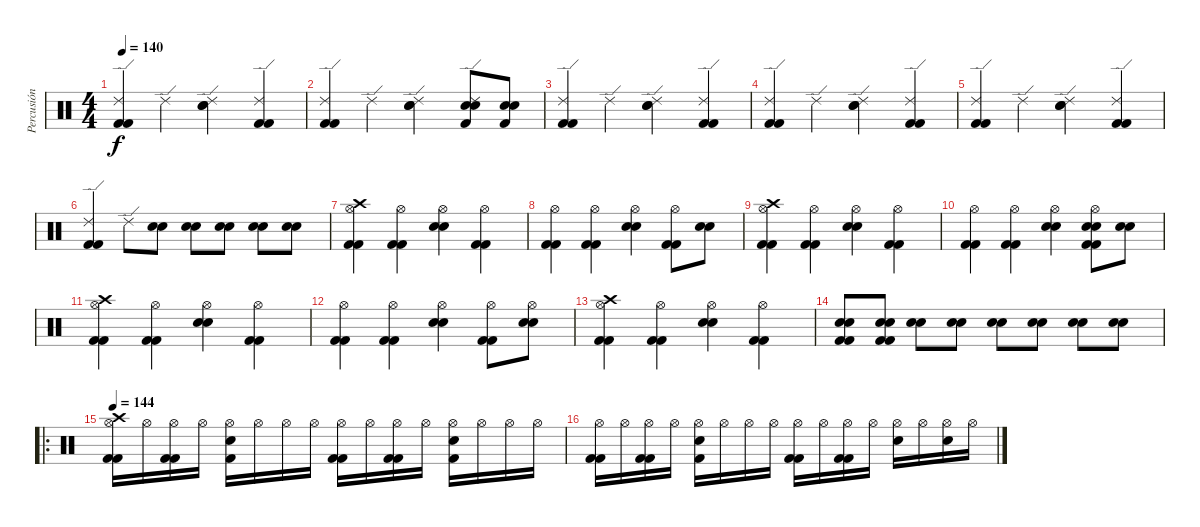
\track ("Percusión" "Percusión") {instrument percussion}
\staff {score}
\articulation defaults
\ts (4 4)
\tempo 140
\clef neutral
\ks c
("Kick (hit) 2" "Kick (hit) 2" "Ride (edge) 2").4{dy f} "Ride (edge) 2".4 ("Electric Snare (hit)" "Electric Snare (hit)" "Ride (edge) 2").4 ("Kick (hit) 2" "Kick (hit) 2" "Ride (edge) 2").4 |
("Kick (hit) 2" "Kick (hit) 2" "Ride (edge) 2").4 "Ride (edge) 2".4 ("Electric Snare (hit)" "Electric Snare (hit)" "Ride (edge) 2").4 ("Electric Snare (hit)" "Electric Snare (hit)" "Kick (hit) 2" "Ride (edge) 2").8 ("Electric Snare (hit)" "Electric Snare (hit)" "Kick (hit) 2").8 |
("Kick (hit) 2" "Kick (hit) 2" "Ride (edge) 2").4 "Ride (edge) 2".4 ("Electric Snare (hit)" "Electric Snare (hit)" "Ride (edge) 2").4 ("Kick (hit) 2" "Kick (hit) 2" "Ride (edge) 2").4 |
("Kick (hit) 2" "Kick (hit) 2" "Ride (edge) 2").4 "Ride (edge) 2".4 ("Electric Snare (hit)" "Electric Snare (hit)" "Ride (edge) 2").4 ("Kick (hit) 2" "Kick (hit) 2" "Ride (edge) 2").4 |
("Kick (hit) 2" "Kick (hit) 2" "Ride (edge) 2").4 "Ride (edge) 2".4 ("Electric Snare (hit)" "Electric Snare (hit)" "Ride (edge) 2").4 ("Kick (hit) 2" "Kick (hit) 2" "Ride (edge) 2").4 |
("Kick (hit) 2" "Kick (hit) 2" "Ride (edge) 2").4 "Ride (edge) 2".8 ("Electric Snare (hit)" "Electric Snare (hit)").8 ("Electric Snare (hit)" "Electric Snare (hit)").8 ("Electric Snare (hit)" "Electric Snare (hit)").8 ("Electric Snare (hit)" "Electric Snare (hit)").8 ("Electric Snare (hit)" "Electric Snare (hit)").8 |
("Crash high (hit)" "Kick (hit) 2" "Kick (hit) 2" "Hi-Hat (open)").4 ("Kick (hit) 2" "Kick (hit) 2" "Hi-Hat (open)").4 ("Electric Snare (hit)" "Electric Snare (hit)" "Hi-Hat (open)").4 ("Kick (hit) 2" "Kick (hit) 2" "Hi-Hat (open)").4 |
("Kick (hit) 2" "Kick (hit) 2" "Hi-Hat (open)").4 ("Kick (hit) 2" "Kick (hit) 2" "Hi-Hat (open)").4 ("Electric Snare (hit)" "Electric Snare (hit)" "Hi-Hat (open)").4 ("Kick (hit) 2" "Kick (hit) 2" "Hi-Hat (open)").8 ("Electric Snare (hit)" "Electric Snare (hit)").8 |
("Crash high (hit)" "Kick (hit) 2" "Kick (hit) 2" "Hi-Hat (open)").4 ("Kick (hit) 2" "Kick (hit) 2" "Hi-Hat (open)").4 ("Electric Snare (hit)" "Electric Snare (hit)" "Hi-Hat (open)").4 ("Kick (hit) 2" "Kick (hit) 2" "Hi-Hat (open)").4 |
("Kick (hit) 2" "Kick (hit) 2" "Hi-Hat (open)").4 ("Kick (hit) 2" "Kick (hit) 2" "Hi-Hat (open)").4 ("Electric Snare (hit)" "Electric Snare (hit)" "Hi-Hat (open)").4 ("Electric Snare (hit)" "Electric Snare (hit)" "Kick (hit) 2" "Kick (hit) 2" "Hi-Hat (open)").8 ("Electric Snare (hit)" "Electric Snare (hit)").8 |
("Crash high (hit)" "Kick (hit) 2" "Kick (hit) 2" "Hi-Hat (open)").4 ("Kick (hit) 2" "Kick (hit) 2" "Hi-Hat (open)").4 ("Electric Snare (hit)" "Electric Snare (hit)" "Hi-Hat (open)").4 ("Kick (hit) 2" "Kick (hit) 2" "Hi-Hat (open)").4 |
("Kick (hit) 2" "Kick (hit) 2" "Hi-Hat (open)").4 ("Kick (hit) 2" "Kick (hit) 2" "Hi-Hat (open)").4 ("Electric Snare (hit)" "Electric Snare (hit)" "Hi-Hat (open)").4 ("Kick (hit) 2" "Kick (hit) 2" "Hi-Hat (open)").8 ("Hi-Hat (open)" "Electric Snare (hit)" "Electric Snare (hit)").8 |
("Crash high (hit)" "Kick (hit) 2" "Kick (hit) 2" "Hi-Hat (open)").4 ("Kick (hit) 2" "Kick (hit) 2" "Hi-Hat (open)").4 ("Electric Snare (hit)" "Electric Snare (hit)" "Hi-Hat (open)").4 ("Kick (hit) 2" "Kick (hit) 2" "Hi-Hat (open)").4 |
("Electric Snare (hit)" "Electric Snare (hit)" "Kick (hit) 2" "Kick (hit) 2").8 ("Electric Snare (hit)" "Electric Snare (hit)" "Kick (hit) 2" "Kick (hit) 2").8 ("Electric Snare (hit)" "Electric Snare (hit)").8 ("Electric Snare (hit)" "Electric Snare (hit)").8 ("Electric Snare (hit)" "Electric Snare (hit)").8 ("Electric Snare (hit)" "Electric Snare (hit)").8 ("Electric Snare (hit)" "Electric Snare (hit)").8 ("Electric Snare (hit)" "Electric Snare (hit)").8 |
\ro
\tempo 144
("Hi-Hat (open)" "Kick (hit) 2" "Kick (hit) 2" "Crash high (hit)").16 "Hi-Hat (open)".16 ("Hi-Hat (open)" "Kick (hit) 2" "Kick (hit) 2").16 "Hi-Hat (open)".16 ("Hi-Hat (open)" "Kick (hit) 2" "Electric Snare (hit)").16 "Hi-Hat (open)".16 "Hi-Hat (open)".16 "Hi-Hat (open)".16 ("Hi-Hat (open)" "Kick (hit) 2" "Kick (hit) 2").16 "Hi-Hat (open)".16 ("Hi-Hat (open)" "Kick (hit) 2" "Kick (hit) 2").16 "Hi-Hat (open)".16 ("Hi-Hat (open)" "Kick (hit) 2" "Electric Snare (hit)").16 "Hi-Hat (open)".16 "Hi-Hat (open)".16 "Hi-Hat (open)".16 |
("Hi-Hat (open)" "Kick (hit) 2" "Kick (hit) 2").16 "Hi-Hat (open)".16 ("Hi-Hat (open)" "Kick (hit) 2" "Kick (hit) 2").16 "Hi-Hat (open)".16 ("Hi-Hat (open)" "Kick (hit) 2" "Electric Snare (hit)").16 "Hi-Hat (open)".16 "Hi-Hat (open)".16 "Hi-Hat (open)".16 ("Hi-Hat (open)" "Kick (hit) 2" "Kick (hit) 2").16 "Hi-Hat (open)".16 ("Hi-Hat (open)" "Kick (hit) 2" "Kick (hit) 2").16 "Hi-Hat (open)".16 ("Hi-Hat (open)" "Electric Snare (hit)").16 "Hi-Hat (open)".16 ("Hi-Hat (open)" "Electric Snare (hit)").16 "Hi-Hat (open)".16
